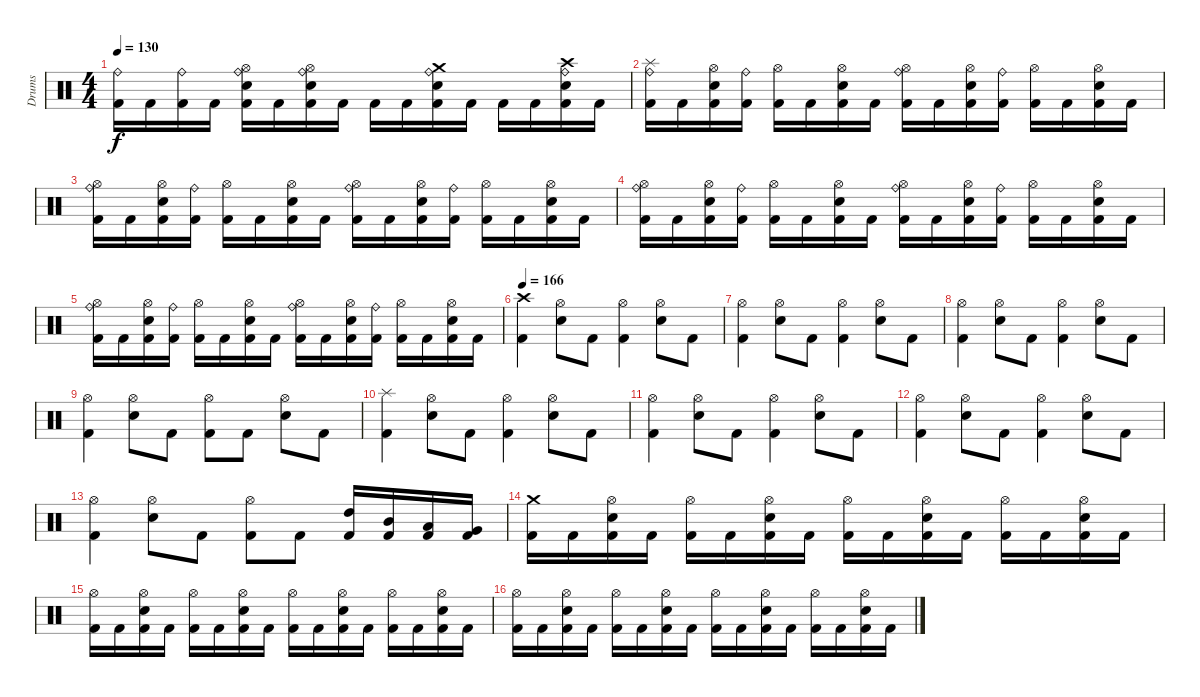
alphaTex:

\track ("Drums" "Drums") {instrument percussion}
\staff {score}
\articulation defaults
\ts (4 4)
\tempo 130
\clef neutral
\ks c
("Kick (hit) 2" "Ride (bell)").16{dy f} "Kick (hit) 2".16 ("Kick (hit) 2" "Ride (bell)").16 "Kick (hit) 2".16 ("Kick (hit) 2" "Electric Snare (hit)" "Hi-Hat (open)" "Ride (bell)").16 "Kick (hit) 2".16 ("Kick (hit) 2" "Electric Snare (hit)" "Hi-Hat (open)" "Ride (bell)").16 "Kick (hit) 2".16 "Kick (hit) 2".16 "Kick (hit) 2".16 ("Kick (hit) 2" "Electric Snare (hit)" "Crash medium (hit)" "Ride (bell)").16 "Kick (hit) 2".16 "Kick (hit) 2".16 "Kick (hit) 2".16 ("Kick (hit) 2" "Electric Snare (hit)" "Crash high (hit)" "Ride (bell)").16 "Kick (hit) 2".16 |
("Kick (hit) 2" "Splash (hit)" "Ride (bell)").16 "Kick (hit) 2".16 ("Kick (hit) 2" "Electric Snare (hit)" "Hi-Hat (open)").16 ("Kick (hit) 2" "Ride (bell)").16 ("Kick (hit) 2" "Hi-Hat (open)").16 "Kick (hit) 2".16 ("Kick (hit) 2" "Electric Snare (hit)" "Hi-Hat (open)").16 "Kick (hit) 2".16 ("Kick (hit) 2" "Hi-Hat (open)" "Ride (bell)").16 "Kick (hit) 2".16 ("Kick (hit) 2" "Electric Snare (hit)" "Hi-Hat (open)").16 ("Kick (hit) 2" "Ride (bell)").16 ("Kick (hit) 2" "Hi-Hat (open)").16 "Kick (hit) 2".16 ("Kick (hit) 2" "Electric Snare (hit)" "Hi-Hat (open)").16 "Kick (hit) 2".16 |
("Kick (hit) 2" "Hi-Hat (open)" "Ride (bell)").16 "Kick (hit) 2".16 ("Kick (hit) 2" "Electric Snare (hit)" "Hi-Hat (open)").16 ("Kick (hit) 2" "Ride (bell)").16 ("Kick (hit) 2" "Hi-Hat (open)").16 "Kick (hit) 2".16 ("Kick (hit) 2" "Electric Snare (hit)" "Hi-Hat (open)").16 "Kick (hit) 2".16 ("Kick (hit) 2" "Hi-Hat (open)" "Ride (bell)").16 "Kick (hit) 2".16 ("Kick (hit) 2" "Electric Snare (hit)" "Hi-Hat (open)").16 ("Kick (hit) 2" "Ride (bell)").16 ("Kick (hit) 2" "Hi-Hat (open)").16 "Kick (hit) 2".16 ("Kick (hit) 2" "Electric Snare (hit)" "Hi-Hat (open)").16 "Kick (hit) 2".16 |
("Kick (hit) 2" "Hi-Hat (open)" "Ride (bell)").16 "Kick (hit) 2".16 ("Kick (hit) 2" "Electric Snare (hit)" "Hi-Hat (open)").16 ("Kick (hit) 2" "Ride (bell)").16 ("Kick (hit) 2" "Hi-Hat (open)").16 "Kick (hit) 2".16 ("Kick (hit) 2" "Electric Snare (hit)" "Hi-Hat (open)").16 "Kick (hit) 2".16 ("Kick (hit) 2" "Hi-Hat (open)" "Ride (bell)").16 "Kick (hit) 2".16 ("Kick (hit) 2" "Electric Snare (hit)" "Hi-Hat (open)").16 ("Kick (hit) 2" "Ride (bell)").16 ("Kick (hit) 2" "Hi-Hat (open)").16 "Kick (hit) 2".16 ("Kick (hit) 2" "Electric Snare (hit)" "Hi-Hat (open)").16 "Kick (hit) 2".16 |
("Kick (hit) 2" "Hi-Hat (open)" "Ride (bell)").16 "Kick (hit) 2".16 ("Kick (hit) 2" "Electric Snare (hit)" "Hi-Hat (open)").16 ("Kick (hit) 2" "Ride (bell)").16 ("Kick (hit) 2" "Hi-Hat (open)").16 "Kick (hit) 2".16 ("Kick (hit) 2" "Electric Snare (hit)" "Hi-Hat (open)").16 "Kick (hit) 2".16 ("Kick (hit) 2" "Hi-Hat (open)" "Ride (bell)").16 "Kick (hit) 2".16 ("Kick (hit) 2" "Electric Snare (hit)" "Hi-Hat (open)").16 ("Kick (hit) 2" "Ride (bell)").16 ("Kick (hit) 2" "Hi-Hat (open)").16 "Kick (hit) 2".16 ("Kick (hit) 2" "Electric Snare (hit)" "Hi-Hat (open)").16 "Kick (hit) 2".16 |
\section ("" "")
\tempo 166
("Kick (hit) 2" "Crash high (hit)").4 ("Electric Snare (hit)" "Hi-Hat (open)").8 "Kick (hit) 2".8 ("Kick (hit) 2" "Hi-Hat (open)").4 ("Electric Snare (hit)" "Hi-Hat (open)").8 "Kick (hit) 2".8 |
("Kick (hit) 2" "Hi-Hat (open)").4 ("Electric Snare (hit)" "Hi-Hat (open)").8 "Kick (hit) 2".8 ("Kick (hit) 2" "Hi-Hat (open)").4 ("Electric Snare (hit)" "Hi-Hat (open)").8 "Kick (hit) 2".8 |
("Kick (hit) 2" "Hi-Hat (open)").4 ("Electric Snare (hit)" "Hi-Hat (open)").8 "Kick (hit) 2".8 ("Kick (hit) 2" "Hi-Hat (open)").4 ("Electric Snare (hit)" "Hi-Hat (open)").8 "Kick (hit) 2".8 |
("Kick (hit) 2" "Hi-Hat (open)").4 ("Electric Snare (hit)" "Hi-Hat (open)").8 "Kick (hit) 2".8 ("Kick (hit) 2" "Hi-Hat (open)").8 "Kick (hit) 2".8 ("Electric Snare (hit)" "Hi-Hat (open)").8 "Kick (hit) 2".8 |
("Kick (hit) 2" "Splash (hit)").4 ("Electric Snare (hit)" "Hi-Hat (open)").8 "Kick (hit) 2".8 ("Kick (hit) 2" "Hi-Hat (open)").4 ("Electric Snare (hit)" "Hi-Hat (open)").8 "Kick (hit) 2".8 |
("Kick (hit) 2" "Hi-Hat (open)").4 ("Electric Snare (hit)" "Hi-Hat (open)").8 "Kick (hit) 2".8 ("Kick (hit) 2" "Hi-Hat (open)").4 ("Electric Snare (hit)" "Hi-Hat (open)").8 "Kick (hit) 2".8 |
("Kick (hit) 2" "Hi-Hat (open)").4 ("Electric Snare (hit)" "Hi-Hat (open)").8 "Kick (hit) 2".8 ("Kick (hit) 2" "Hi-Hat (open)").4 ("Electric Snare (hit)" "Hi-Hat (open)").8 "Kick (hit) 2".8 |
("Kick (hit) 2" "Hi-Hat (open)").4 ("Electric Snare (hit)" "Hi-Hat (open)").8 "Kick (hit) 2".8 ("Kick (hit) 2" "Hi-Hat (open)").8 "Kick (hit) 2".8 ("Kick (hit) 2" "High Tom (hit)").16 ("Kick (hit) 2" "Mid Tom (hit)").16 ("Kick (hit) 2" "Low Tom (hit)").16 ("Kick (hit) 2" "Very Low Tom (hit)").16 |
\section ("" "")
("Kick (hit) 2" "Crash medium (hit)").16 "Kick (hit) 2".16 ("Kick (hit) 2" "Electric Snare (hit)" "Hi-Hat (open)").16 "Kick (hit) 2".16 ("Kick (hit) 2" "Hi-Hat (open)").16 "Kick (hit) 2".16 ("Kick (hit) 2" "Electric Snare (hit)" "Hi-Hat (open)").16 "Kick (hit) 2".16 ("Kick (hit) 2" "Hi-Hat (open)").16 "Kick (hit) 2".16 ("Kick (hit) 2" "Electric Snare (hit)" "Hi-Hat (open)").16 "Kick (hit) 2".16 ("Kick (hit) 2" "Hi-Hat (open)").16 "Kick (hit) 2".16 ("Kick (hit) 2" "Electric Snare (hit)" "Hi-Hat (open)").16 "Kick (hit) 2".16 |
("Kick (hit) 2" "Hi-Hat (open)").16 "Kick (hit) 2".16 ("Kick (hit) 2" "Electric Snare (hit)" "Hi-Hat (open)").16 "Kick (hit) 2".16 ("Kick (hit) 2" "Hi-Hat (open)").16 "Kick (hit) 2".16 ("Kick (hit) 2" "Electric Snare (hit)" "Hi-Hat (open)").16 "Kick (hit) 2".16 ("Kick (hit) 2" "Hi-Hat (open)").16 "Kick (hit) 2".16 ("Kick (hit) 2" "Electric Snare (hit)" "Hi-Hat (open)").16 "Kick (hit) 2".16 ("Kick (hit) 2" "Hi-Hat (open)").16 "Kick (hit) 2".16 ("Kick (hit) 2" "Electric Snare (hit)" "Hi-Hat (open)").16 "Kick (hit) 2".16 |
("Kick (hit) 2" "Hi-Hat (open)").16 "Kick (hit) 2".16 ("Kick (hit) 2" "Electric Snare (hit)" "Hi-Hat (open)").16 "Kick (hit) 2".16 ("Kick (hit) 2" "Hi-Hat (open)").16 "Kick (hit) 2".16 ("Kick (hit) 2" "Electric Snare (hit)" "Hi-Hat (open)").16 "Kick (hit) 2".16 ("Kick (hit) 2" "Hi-Hat (open)").16 "Kick (hit) 2".16 ("Kick (hit) 2" "Electric Snare (hit)" "Hi-Hat (open)").16 "Kick (hit) 2".16 ("Kick (hit) 2" "Hi-Hat (open)").16 "Kick (hit) 2".16 ("Kick (hit) 2" "Electric Snare (hit)" "Hi-Hat (open)").16 "Kick (hit) 2".16
